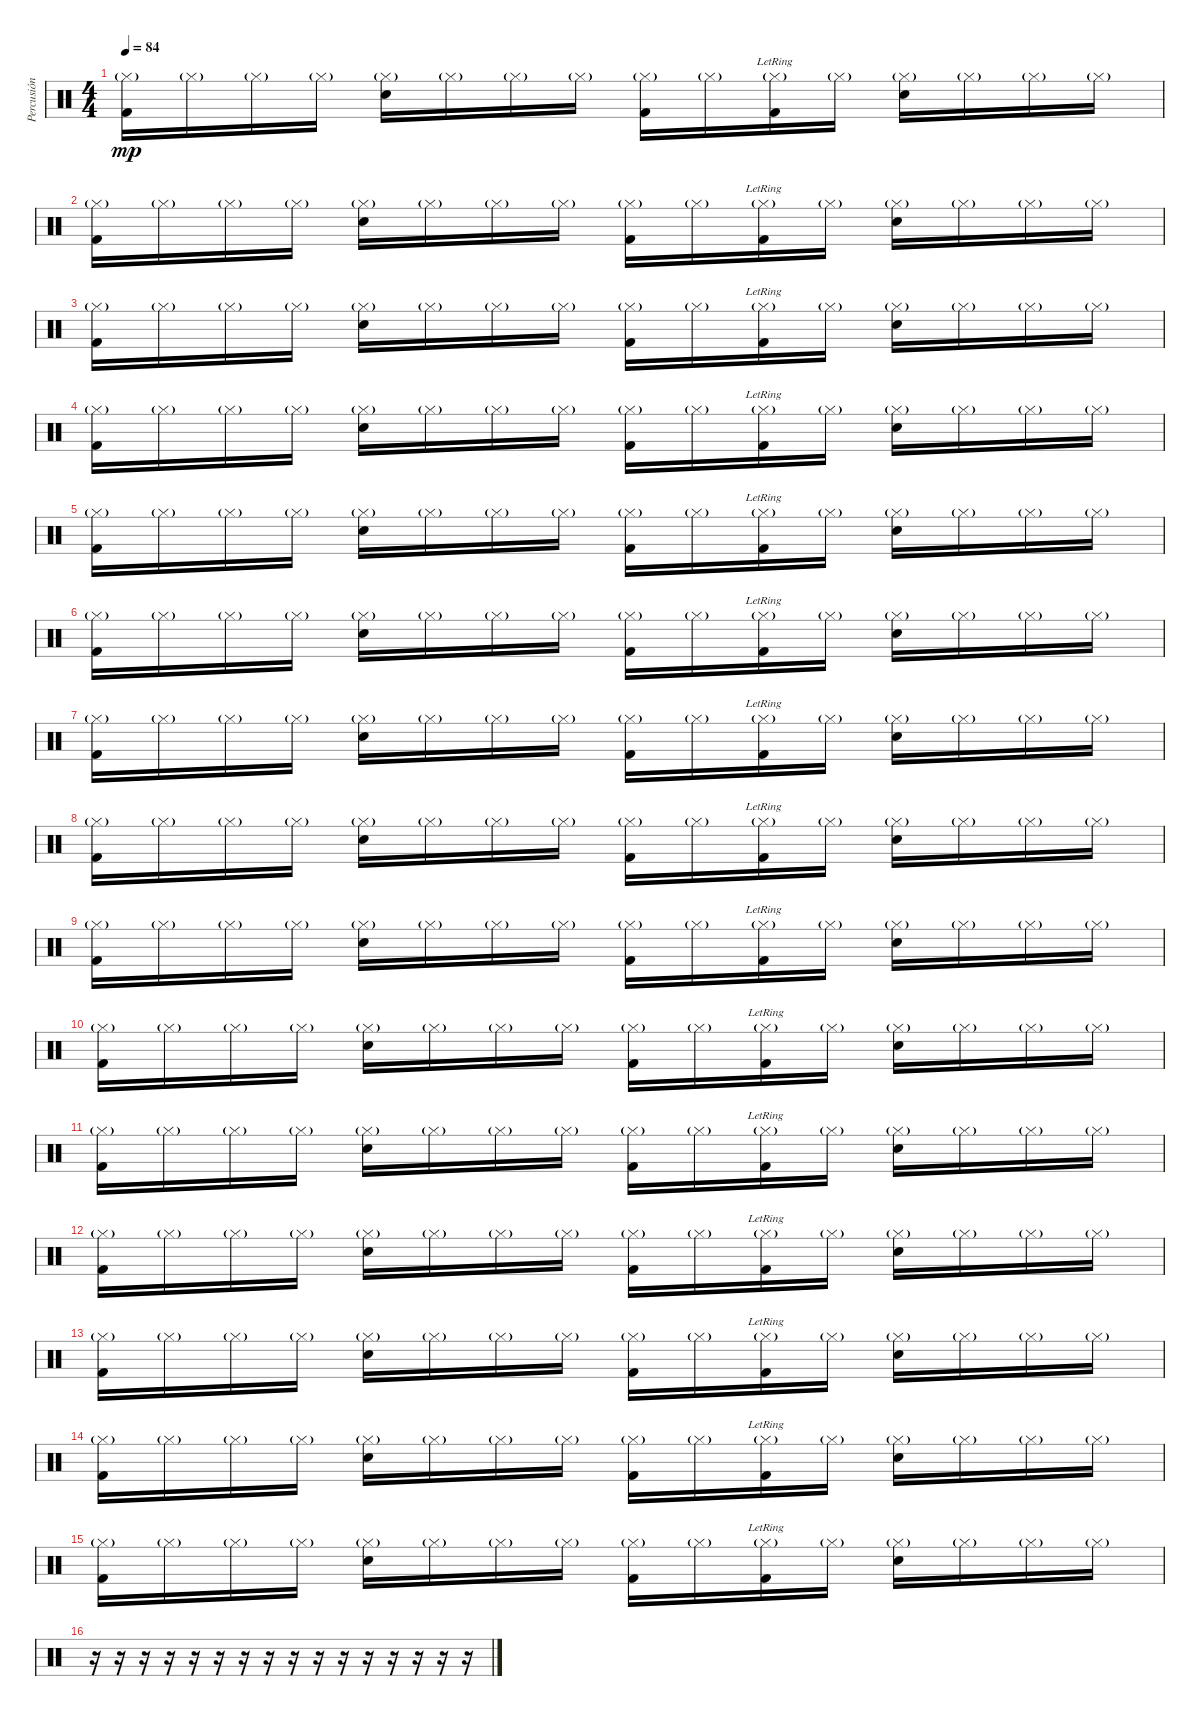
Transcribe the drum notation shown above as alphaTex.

\track ("Percusión 2" "Percusión ") {instrument percussion}
\staff {score}
\articulation defaults
\ts (4 4)
\tempo 84
\clef neutral
\ks c
("Hi-Hat (closed)"{g} "Kick (hit) 2").16{dy mp} "Hi-Hat (closed)"{g}.16 "Hi-Hat (closed)"{g}.16 "Hi-Hat (closed)"{g}.16 ("Hi-Hat (closed)"{g} "Snare (hit) 2").16 "Hi-Hat (closed)"{g}.16 "Hi-Hat (closed)"{g}.16 "Hi-Hat (closed)"{g}.16 ("Hi-Hat (closed)"{g} "Kick (hit) 2").16 "Hi-Hat (closed)"{g}.16 ("Hi-Hat (closed)"{g} "Kick (hit) 2"{lr}).16 "Hi-Hat (closed)"{g}.16 ("Hi-Hat (closed)"{g} "Snare (hit) 2").16 "Hi-Hat (closed)"{g}.16 "Hi-Hat (closed)"{g}.16 "Hi-Hat (closed)"{g}.16 |
("Hi-Hat (closed)"{g} "Kick (hit) 2").16 "Hi-Hat (closed)"{g}.16 "Hi-Hat (closed)"{g}.16 "Hi-Hat (closed)"{g}.16 ("Hi-Hat (closed)"{g} "Snare (hit) 2").16 "Hi-Hat (closed)"{g}.16 "Hi-Hat (closed)"{g}.16 "Hi-Hat (closed)"{g}.16 ("Hi-Hat (closed)"{g} "Kick (hit) 2").16 "Hi-Hat (closed)"{g}.16 ("Hi-Hat (closed)"{g} "Kick (hit) 2"{lr}).16 "Hi-Hat (closed)"{g}.16 ("Hi-Hat (closed)"{g} "Snare (hit) 2").16 "Hi-Hat (closed)"{g}.16 "Hi-Hat (closed)"{g}.16 "Hi-Hat (closed)"{g}.16 |
("Hi-Hat (closed)"{g} "Kick (hit) 2").16 "Hi-Hat (closed)"{g}.16 "Hi-Hat (closed)"{g}.16 "Hi-Hat (closed)"{g}.16 ("Hi-Hat (closed)"{g} "Snare (hit) 2").16 "Hi-Hat (closed)"{g}.16 "Hi-Hat (closed)"{g}.16 "Hi-Hat (closed)"{g}.16 ("Hi-Hat (closed)"{g} "Kick (hit) 2").16 "Hi-Hat (closed)"{g}.16 ("Hi-Hat (closed)"{g} "Kick (hit) 2"{lr}).16 "Hi-Hat (closed)"{g}.16 ("Hi-Hat (closed)"{g} "Snare (hit) 2").16 "Hi-Hat (closed)"{g}.16 "Hi-Hat (closed)"{g}.16 "Hi-Hat (closed)"{g}.16 |
("Hi-Hat (closed)"{g} "Kick (hit) 2").16 "Hi-Hat (closed)"{g}.16 "Hi-Hat (closed)"{g}.16 "Hi-Hat (closed)"{g}.16 ("Hi-Hat (closed)"{g} "Snare (hit) 2").16 "Hi-Hat (closed)"{g}.16 "Hi-Hat (closed)"{g}.16 "Hi-Hat (closed)"{g}.16 ("Hi-Hat (closed)"{g} "Kick (hit) 2").16 "Hi-Hat (closed)"{g}.16 ("Hi-Hat (closed)"{g} "Kick (hit) 2"{lr}).16 "Hi-Hat (closed)"{g}.16 ("Hi-Hat (closed)"{g} "Snare (hit) 2").16 "Hi-Hat (closed)"{g}.16 "Hi-Hat (closed)"{g}.16 "Hi-Hat (closed)"{g}.16 |
("Hi-Hat (closed)"{g} "Kick (hit) 2").16 "Hi-Hat (closed)"{g}.16 "Hi-Hat (closed)"{g}.16 "Hi-Hat (closed)"{g}.16 ("Hi-Hat (closed)"{g} "Snare (hit) 2").16 "Hi-Hat (closed)"{g}.16 "Hi-Hat (closed)"{g}.16 "Hi-Hat (closed)"{g}.16 ("Hi-Hat (closed)"{g} "Kick (hit) 2").16 "Hi-Hat (closed)"{g}.16 ("Hi-Hat (closed)"{g} "Kick (hit) 2"{lr}).16 "Hi-Hat (closed)"{g}.16 ("Hi-Hat (closed)"{g} "Snare (hit) 2").16 "Hi-Hat (closed)"{g}.16 "Hi-Hat (closed)"{g}.16 "Hi-Hat (closed)"{g}.16 |
("Hi-Hat (closed)"{g} "Kick (hit) 2").16 "Hi-Hat (closed)"{g}.16 "Hi-Hat (closed)"{g}.16 "Hi-Hat (closed)"{g}.16 ("Hi-Hat (closed)"{g} "Snare (hit) 2").16 "Hi-Hat (closed)"{g}.16 "Hi-Hat (closed)"{g}.16 "Hi-Hat (closed)"{g}.16 ("Hi-Hat (closed)"{g} "Kick (hit) 2").16 "Hi-Hat (closed)"{g}.16 ("Hi-Hat (closed)"{g} "Kick (hit) 2"{lr}).16 "Hi-Hat (closed)"{g}.16 ("Hi-Hat (closed)"{g} "Snare (hit) 2").16 "Hi-Hat (closed)"{g}.16 "Hi-Hat (closed)"{g}.16 "Hi-Hat (closed)"{g}.16 |
("Hi-Hat (closed)"{g} "Kick (hit) 2").16 "Hi-Hat (closed)"{g}.16 "Hi-Hat (closed)"{g}.16 "Hi-Hat (closed)"{g}.16 ("Hi-Hat (closed)"{g} "Snare (hit) 2").16 "Hi-Hat (closed)"{g}.16 "Hi-Hat (closed)"{g}.16 "Hi-Hat (closed)"{g}.16 ("Hi-Hat (closed)"{g} "Kick (hit) 2").16 "Hi-Hat (closed)"{g}.16 ("Hi-Hat (closed)"{g} "Kick (hit) 2"{lr}).16 "Hi-Hat (closed)"{g}.16 ("Hi-Hat (closed)"{g} "Snare (hit) 2").16 "Hi-Hat (closed)"{g}.16 "Hi-Hat (closed)"{g}.16 "Hi-Hat (closed)"{g}.16 |
("Hi-Hat (closed)"{g} "Kick (hit) 2").16 "Hi-Hat (closed)"{g}.16 "Hi-Hat (closed)"{g}.16 "Hi-Hat (closed)"{g}.16 ("Hi-Hat (closed)"{g} "Snare (hit) 2").16 "Hi-Hat (closed)"{g}.16 "Hi-Hat (closed)"{g}.16 "Hi-Hat (closed)"{g}.16 ("Hi-Hat (closed)"{g} "Kick (hit) 2").16 "Hi-Hat (closed)"{g}.16 ("Hi-Hat (closed)"{g} "Kick (hit) 2"{lr}).16 "Hi-Hat (closed)"{g}.16 ("Hi-Hat (closed)"{g} "Snare (hit) 2").16 "Hi-Hat (closed)"{g}.16 "Hi-Hat (closed)"{g}.16 "Hi-Hat (closed)"{g}.16 |
("Hi-Hat (closed)"{g} "Kick (hit) 2").16 "Hi-Hat (closed)"{g}.16 "Hi-Hat (closed)"{g}.16 "Hi-Hat (closed)"{g}.16 ("Hi-Hat (closed)"{g} "Snare (hit) 2").16 "Hi-Hat (closed)"{g}.16 "Hi-Hat (closed)"{g}.16 "Hi-Hat (closed)"{g}.16 ("Hi-Hat (closed)"{g} "Kick (hit) 2").16 "Hi-Hat (closed)"{g}.16 ("Hi-Hat (closed)"{g} "Kick (hit) 2"{lr}).16 "Hi-Hat (closed)"{g}.16 ("Hi-Hat (closed)"{g} "Snare (hit) 2").16 "Hi-Hat (closed)"{g}.16 "Hi-Hat (closed)"{g}.16 "Hi-Hat (closed)"{g}.16 |
("Hi-Hat (closed)"{g} "Kick (hit) 2").16 "Hi-Hat (closed)"{g}.16 "Hi-Hat (closed)"{g}.16 "Hi-Hat (closed)"{g}.16 ("Hi-Hat (closed)"{g} "Snare (hit) 2").16 "Hi-Hat (closed)"{g}.16 "Hi-Hat (closed)"{g}.16 "Hi-Hat (closed)"{g}.16 ("Hi-Hat (closed)"{g} "Kick (hit) 2").16 "Hi-Hat (closed)"{g}.16 ("Hi-Hat (closed)"{g} "Kick (hit) 2"{lr}).16 "Hi-Hat (closed)"{g}.16 ("Hi-Hat (closed)"{g} "Snare (hit) 2").16 "Hi-Hat (closed)"{g}.16 "Hi-Hat (closed)"{g}.16 "Hi-Hat (closed)"{g}.16 |
("Hi-Hat (closed)"{g} "Kick (hit) 2").16 "Hi-Hat (closed)"{g}.16 "Hi-Hat (closed)"{g}.16 "Hi-Hat (closed)"{g}.16 ("Hi-Hat (closed)"{g} "Snare (hit) 2").16 "Hi-Hat (closed)"{g}.16 "Hi-Hat (closed)"{g}.16 "Hi-Hat (closed)"{g}.16 ("Hi-Hat (closed)"{g} "Kick (hit) 2").16 "Hi-Hat (closed)"{g}.16 ("Hi-Hat (closed)"{g} "Kick (hit) 2"{lr}).16 "Hi-Hat (closed)"{g}.16 ("Hi-Hat (closed)"{g} "Snare (hit) 2").16 "Hi-Hat (closed)"{g}.16 "Hi-Hat (closed)"{g}.16 "Hi-Hat (closed)"{g}.16 |
("Hi-Hat (closed)"{g} "Kick (hit) 2").16 "Hi-Hat (closed)"{g}.16 "Hi-Hat (closed)"{g}.16 "Hi-Hat (closed)"{g}.16 ("Hi-Hat (closed)"{g} "Snare (hit) 2").16 "Hi-Hat (closed)"{g}.16 "Hi-Hat (closed)"{g}.16 "Hi-Hat (closed)"{g}.16 ("Hi-Hat (closed)"{g} "Kick (hit) 2").16 "Hi-Hat (closed)"{g}.16 ("Hi-Hat (closed)"{g} "Kick (hit) 2"{lr}).16 "Hi-Hat (closed)"{g}.16 ("Hi-Hat (closed)"{g} "Snare (hit) 2").16 "Hi-Hat (closed)"{g}.16 "Hi-Hat (closed)"{g}.16 "Hi-Hat (closed)"{g}.16 |
("Hi-Hat (closed)"{g} "Kick (hit) 2").16 "Hi-Hat (closed)"{g}.16 "Hi-Hat (closed)"{g}.16 "Hi-Hat (closed)"{g}.16 ("Hi-Hat (closed)"{g} "Snare (hit) 2").16 "Hi-Hat (closed)"{g}.16 "Hi-Hat (closed)"{g}.16 "Hi-Hat (closed)"{g}.16 ("Hi-Hat (closed)"{g} "Kick (hit) 2").16 "Hi-Hat (closed)"{g}.16 ("Hi-Hat (closed)"{g} "Kick (hit) 2"{lr}).16 "Hi-Hat (closed)"{g}.16 ("Hi-Hat (closed)"{g} "Snare (hit) 2").16 "Hi-Hat (closed)"{g}.16 "Hi-Hat (closed)"{g}.16 "Hi-Hat (closed)"{g}.16 |
("Hi-Hat (closed)"{g} "Kick (hit) 2").16 "Hi-Hat (closed)"{g}.16 "Hi-Hat (closed)"{g}.16 "Hi-Hat (closed)"{g}.16 ("Hi-Hat (closed)"{g} "Snare (hit) 2").16 "Hi-Hat (closed)"{g}.16 "Hi-Hat (closed)"{g}.16 "Hi-Hat (closed)"{g}.16 ("Hi-Hat (closed)"{g} "Kick (hit) 2").16 "Hi-Hat (closed)"{g}.16 ("Hi-Hat (closed)"{g} "Kick (hit) 2"{lr}).16 "Hi-Hat (closed)"{g}.16 ("Hi-Hat (closed)"{g} "Snare (hit) 2").16 "Hi-Hat (closed)"{g}.16 "Hi-Hat (closed)"{g}.16 "Hi-Hat (closed)"{g}.16 |
("Hi-Hat (closed)"{g} "Kick (hit) 2").16 "Hi-Hat (closed)"{g}.16 "Hi-Hat (closed)"{g}.16 "Hi-Hat (closed)"{g}.16 ("Hi-Hat (closed)"{g} "Snare (hit) 2").16 "Hi-Hat (closed)"{g}.16 "Hi-Hat (closed)"{g}.16 "Hi-Hat (closed)"{g}.16 ("Hi-Hat (closed)"{g} "Kick (hit) 2").16 "Hi-Hat (closed)"{g}.16 ("Hi-Hat (closed)"{g} "Kick (hit) 2"{lr}).16 "Hi-Hat (closed)"{g}.16 ("Hi-Hat (closed)"{g} "Snare (hit) 2").16 "Hi-Hat (closed)"{g}.16 "Hi-Hat (closed)"{g}.16 "Hi-Hat (closed)"{g}.16 |
r.16 r.16 r.16 r.16 r.16 r.16 r.16 r.16 r.16 r.16 r.16 r.16 r.16 r.16 r.16 r.16
